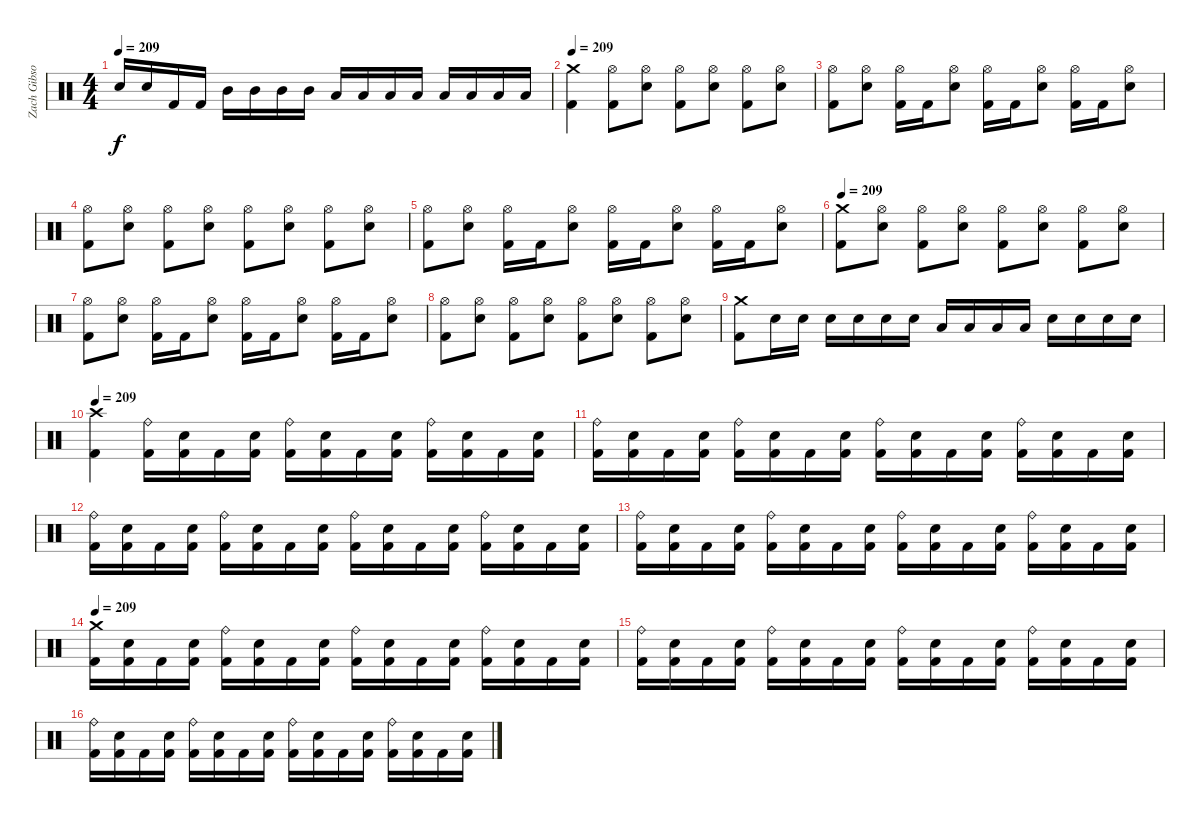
\track ("Zach Gibson (Drums)" "Zach Gibso") {instrument percussion}
\staff {score}
\articulation defaults
\ts (4 4)
\tempo 209
\clef neutral
\ks c "Snare (hit) 2".16{dy f} "Snare (hit) 2".16 "Kick (hit) 2".16 "Kick (hit) 2".16 "Mid Tom (hit)".16 "Mid Tom (hit)".16 "Mid Tom (hit)".16 "Mid Tom (hit)".16 "Low Tom (hit)".16 "Low Tom (hit)".16 "Low Tom (hit)".16 "Low Tom (hit)".16 "Low Floor Tom (hit)".16 "Low Floor Tom (hit)".16 "Low Floor Tom (hit)".16 "Low Floor Tom (hit)".16
|
\tempo 209
("Crash medium (hit)" "Kick (hit) 2").4 ("Hi-Hat (open)" "Kick (hit) 2").8 ("Hi-Hat (open)" "Snare (hit) 2").8 ("Hi-Hat (open)" "Kick (hit) 2").8 ("Hi-Hat (open)" "Snare (hit) 2").8 ("Hi-Hat (open)" "Kick (hit) 2").8 ("Hi-Hat (open)" "Snare (hit) 2").8 |
("Hi-Hat (open)" "Kick (hit) 2").8 ("Hi-Hat (open)" "Snare (hit) 2").8 ("Hi-Hat (open)" "Kick (hit) 2").16 "Kick (hit) 2".16 ("Hi-Hat (open)" "Snare (hit) 2").8 ("Hi-Hat (open)" "Kick (hit) 2").16 "Kick (hit) 2".16 ("Hi-Hat (open)" "Snare (hit) 2").8 ("Hi-Hat (open)" "Kick (hit) 2").16 "Kick (hit) 2".16 ("Hi-Hat (open)" "Snare (hit) 2").8 |
("Hi-Hat (open)" "Kick (hit) 2").8 ("Hi-Hat (open)" "Snare (hit) 2").8 ("Hi-Hat (open)" "Kick (hit) 2").8 ("Hi-Hat (open)" "Snare (hit) 2").8 ("Hi-Hat (open)" "Kick (hit) 2").8 ("Hi-Hat (open)" "Snare (hit) 2").8 ("Hi-Hat (open)" "Kick (hit) 2").8 ("Hi-Hat (open)" "Snare (hit) 2").8 |
("Hi-Hat (open)" "Kick (hit) 2").8 ("Hi-Hat (open)" "Snare (hit) 2").8 ("Hi-Hat (open)" "Kick (hit) 2").16 "Kick (hit) 2".16 ("Hi-Hat (open)" "Snare (hit) 2").8 ("Hi-Hat (open)" "Kick (hit) 2").16 "Kick (hit) 2".16 ("Hi-Hat (open)" "Snare (hit) 2").8 ("Hi-Hat (open)" "Kick (hit) 2").16 "Kick (hit) 2".16 ("Hi-Hat (open)" "Snare (hit) 2").8 |
\tempo 209
("Crash medium (hit)" "Kick (hit) 2").8 ("Hi-Hat (open)" "Snare (hit) 2").8 ("Hi-Hat (open)" "Kick (hit) 2").8 ("Hi-Hat (open)" "Snare (hit) 2").8 ("Hi-Hat (open)" "Kick (hit) 2").8 ("Hi-Hat (open)" "Snare (hit) 2").8 ("Hi-Hat (open)" "Kick (hit) 2").8 ("Hi-Hat (open)" "Snare (hit) 2").8 |
("Hi-Hat (open)" "Kick (hit) 2").8 ("Hi-Hat (open)" "Snare (hit) 2").8 ("Hi-Hat (open)" "Kick (hit) 2").16 "Kick (hit) 2".16 ("Hi-Hat (open)" "Snare (hit) 2").8 ("Hi-Hat (open)" "Kick (hit) 2").16 "Kick (hit) 2".16 ("Hi-Hat (open)" "Snare (hit) 2").8 ("Hi-Hat (open)" "Kick (hit) 2").16 "Kick (hit) 2".16 ("Hi-Hat (open)" "Snare (hit) 2").8 |
("Hi-Hat (open)" "Kick (hit) 2").8 ("Hi-Hat (open)" "Snare (hit) 2").8 ("Hi-Hat (open)" "Kick (hit) 2").8 ("Hi-Hat (open)" "Snare (hit) 2").8 ("Hi-Hat (open)" "Kick (hit) 2").8 ("Hi-Hat (open)" "Snare (hit) 2").8 ("Hi-Hat (open)" "Kick (hit) 2").8 ("Hi-Hat (open)" "Snare (hit) 2").8 |
("Crash medium (hit)" "Kick (hit) 2").8 "Snare (hit) 2".16 "Snare (hit) 2".16 "Snare (hit) 2".16 "Snare (hit) 2".16 "Snare (hit) 2".16 "Snare (hit) 2".16 "Low Tom (hit)".16 "Low Tom (hit)".16 "Low Tom (hit)".16 "Low Tom (hit)".16 "Snare (hit) 2".16 "Snare (hit) 2".16 "Snare (hit) 2".16 "Snare (hit) 2".16 |
\tempo 209
("Crash high (hit)" "Kick (hit) 2").4 ("Ride (bell)" "Kick (hit) 2").16 ("Snare (hit) 2" "Kick (hit) 2").16 "Kick (hit) 2".16 ("Snare (hit) 2" "Kick (hit) 2").16 ("Ride (bell)" "Kick (hit) 2").16 ("Snare (hit) 2" "Kick (hit) 2").16 "Kick (hit) 2".16 ("Snare (hit) 2" "Kick (hit) 2").16 ("Ride (bell)" "Kick (hit) 2").16 ("Snare (hit) 2" "Kick (hit) 2").16 "Kick (hit) 2".16 ("Snare (hit) 2" "Kick (hit) 2").16 |
("Ride (bell)" "Kick (hit) 2").16 ("Snare (hit) 2" "Kick (hit) 2").16 "Kick (hit) 2".16 ("Snare (hit) 2" "Kick (hit) 2").16 ("Ride (bell)" "Kick (hit) 2").16 ("Snare (hit) 2" "Kick (hit) 2").16 "Kick (hit) 2".16 ("Snare (hit) 2" "Kick (hit) 2").16 ("Ride (bell)" "Kick (hit) 2").16 ("Snare (hit) 2" "Kick (hit) 2").16 "Kick (hit) 2".16 ("Snare (hit) 2" "Kick (hit) 2").16 ("Ride (bell)" "Kick (hit) 2").16 ("Snare (hit) 2" "Kick (hit) 2").16 "Kick (hit) 2".16 ("Snare (hit) 2" "Kick (hit) 2").16 |
("Ride (bell)" "Kick (hit) 2").16 ("Snare (hit) 2" "Kick (hit) 2").16 "Kick (hit) 2".16 ("Snare (hit) 2" "Kick (hit) 2").16 ("Ride (bell)" "Kick (hit) 2").16 ("Snare (hit) 2" "Kick (hit) 2").16 "Kick (hit) 2".16 ("Snare (hit) 2" "Kick (hit) 2").16 ("Ride (bell)" "Kick (hit) 2").16 ("Snare (hit) 2" "Kick (hit) 2").16 "Kick (hit) 2".16 ("Snare (hit) 2" "Kick (hit) 2").16 ("Ride (bell)" "Kick (hit) 2").16 ("Snare (hit) 2" "Kick (hit) 2").16 "Kick (hit) 2".16 ("Snare (hit) 2" "Kick (hit) 2").16 |
("Ride (bell)" "Kick (hit) 2").16 ("Snare (hit) 2" "Kick (hit) 2").16 "Kick (hit) 2".16 ("Snare (hit) 2" "Kick (hit) 2").16 ("Ride (bell)" "Kick (hit) 2").16 ("Snare (hit) 2" "Kick (hit) 2").16 "Kick (hit) 2".16 ("Snare (hit) 2" "Kick (hit) 2").16 ("Ride (bell)" "Kick (hit) 2").16 ("Snare (hit) 2" "Kick (hit) 2").16 "Kick (hit) 2".16 ("Snare (hit) 2" "Kick (hit) 2").16 ("Ride (bell)" "Kick (hit) 2").16 ("Snare (hit) 2" "Kick (hit) 2").16 "Kick (hit) 2".16 ("Snare (hit) 2" "Kick (hit) 2").16 |
\tempo 209
("Crash medium (hit)" "Kick (hit) 2").16 ("Snare (hit) 2" "Kick (hit) 2").16 "Kick (hit) 2".16 ("Snare (hit) 2" "Kick (hit) 2").16 ("Ride (bell)" "Kick (hit) 2").16 ("Snare (hit) 2" "Kick (hit) 2").16 "Kick (hit) 2".16 ("Snare (hit) 2" "Kick (hit) 2").16 ("Ride (bell)" "Kick (hit) 2").16 ("Snare (hit) 2" "Kick (hit) 2").16 "Kick (hit) 2".16 ("Snare (hit) 2" "Kick (hit) 2").16 ("Ride (bell)" "Kick (hit) 2").16 ("Snare (hit) 2" "Kick (hit) 2").16 "Kick (hit) 2".16 ("Snare (hit) 2" "Kick (hit) 2").16 |
("Ride (bell)" "Kick (hit) 2").16 ("Snare (hit) 2" "Kick (hit) 2").16 "Kick (hit) 2".16 ("Snare (hit) 2" "Kick (hit) 2").16 ("Ride (bell)" "Kick (hit) 2").16 ("Snare (hit) 2" "Kick (hit) 2").16 "Kick (hit) 2".16 ("Snare (hit) 2" "Kick (hit) 2").16 ("Ride (bell)" "Kick (hit) 2").16 ("Snare (hit) 2" "Kick (hit) 2").16 "Kick (hit) 2".16 ("Snare (hit) 2" "Kick (hit) 2").16 ("Ride (bell)" "Kick (hit) 2").16 ("Snare (hit) 2" "Kick (hit) 2").16 "Kick (hit) 2".16 ("Snare (hit) 2" "Kick (hit) 2").16 |
("Ride (bell)" "Kick (hit) 2").16 ("Snare (hit) 2" "Kick (hit) 2").16 "Kick (hit) 2".16 ("Snare (hit) 2" "Kick (hit) 2").16 ("Ride (bell)" "Kick (hit) 2").16 ("Snare (hit) 2" "Kick (hit) 2").16 "Kick (hit) 2".16 ("Snare (hit) 2" "Kick (hit) 2").16 ("Ride (bell)" "Kick (hit) 2").16 ("Snare (hit) 2" "Kick (hit) 2").16 "Kick (hit) 2".16 ("Snare (hit) 2" "Kick (hit) 2").16 ("Ride (bell)" "Kick (hit) 2").16 ("Snare (hit) 2" "Kick (hit) 2").16 "Kick (hit) 2".16 ("Snare (hit) 2" "Kick (hit) 2").16
